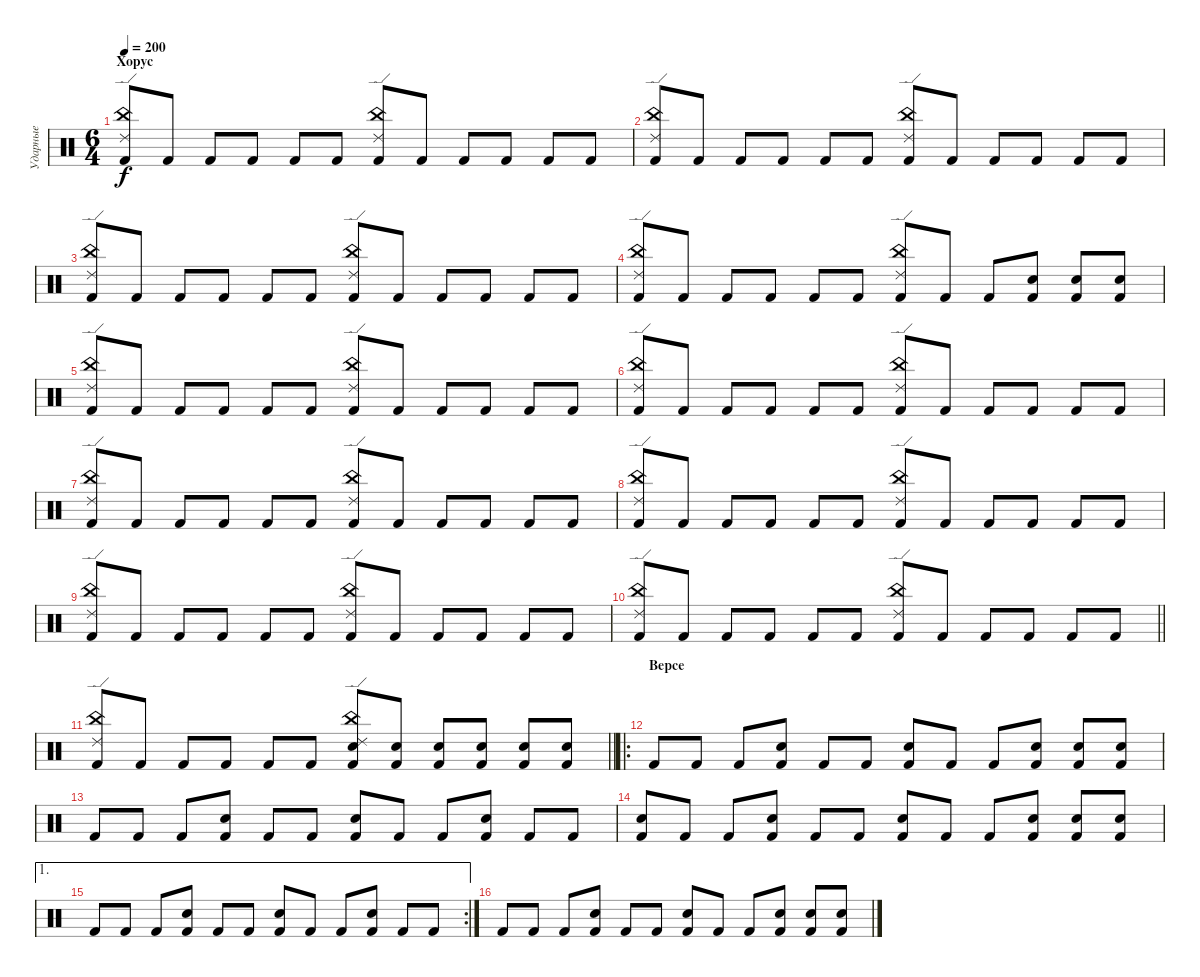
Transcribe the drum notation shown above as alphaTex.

\track ("Ударные" "Ударные") {instrument percussion}
\staff {score}
\articulation defaults
\ts (6 4)
\section ("" "Хорус")
\tempo 200
\clef neutral
\ks c
("Ride (edge) 2" "China (hit)" "Kick (hit) 2").8{dy f} "Kick (hit) 2".8 "Kick (hit) 2".8 "Kick (hit) 2".8 "Kick (hit) 2".8 "Kick (hit) 2".8 ("Ride (edge) 2" "China (hit)" "Kick (hit) 2").8 "Kick (hit) 2".8 "Kick (hit) 2".8 "Kick (hit) 2".8 "Kick (hit) 2".8 "Kick (hit) 2".8 |
("Ride (edge) 2" "China (hit)" "Kick (hit) 2").8 "Kick (hit) 2".8 "Kick (hit) 2".8 "Kick (hit) 2".8 "Kick (hit) 2".8 "Kick (hit) 2".8 ("Ride (edge) 2" "China (hit)" "Kick (hit) 2").8 "Kick (hit) 2".8 "Kick (hit) 2".8 "Kick (hit) 2".8 "Kick (hit) 2".8 "Kick (hit) 2".8 |
("Ride (edge) 2" "China (hit)" "Kick (hit) 2").8 "Kick (hit) 2".8 "Kick (hit) 2".8 "Kick (hit) 2".8 "Kick (hit) 2".8 "Kick (hit) 2".8 ("Ride (edge) 2" "China (hit)" "Kick (hit) 2").8 "Kick (hit) 2".8 "Kick (hit) 2".8 "Kick (hit) 2".8 "Kick (hit) 2".8 "Kick (hit) 2".8 |
("Ride (edge) 2" "China (hit)" "Kick (hit) 2").8 "Kick (hit) 2".8 "Kick (hit) 2".8 "Kick (hit) 2".8 "Kick (hit) 2".8 "Kick (hit) 2".8 ("Ride (edge) 2" "China (hit)" "Kick (hit) 2").8 "Kick (hit) 2".8 "Kick (hit) 2".8 ("Electric Snare (hit)" "Kick (hit) 2").8 ("Electric Snare (hit)" "Kick (hit) 2").8 ("Electric Snare (hit)" "Kick (hit) 2").8 |
("Ride (edge) 2" "China (hit)" "Kick (hit) 2").8 "Kick (hit) 2".8 "Kick (hit) 2".8 "Kick (hit) 2".8 "Kick (hit) 2".8 "Kick (hit) 2".8 ("Ride (edge) 2" "China (hit)" "Kick (hit) 2").8 "Kick (hit) 2".8 "Kick (hit) 2".8 "Kick (hit) 2".8 "Kick (hit) 2".8 "Kick (hit) 2".8 |
("Ride (edge) 2" "China (hit)" "Kick (hit) 2").8 "Kick (hit) 2".8 "Kick (hit) 2".8 "Kick (hit) 2".8 "Kick (hit) 2".8 "Kick (hit) 2".8 ("Ride (edge) 2" "China (hit)" "Kick (hit) 2").8 "Kick (hit) 2".8 "Kick (hit) 2".8 "Kick (hit) 2".8 "Kick (hit) 2".8 "Kick (hit) 2".8 |
("Ride (edge) 2" "China (hit)" "Kick (hit) 2").8 "Kick (hit) 2".8 "Kick (hit) 2".8 "Kick (hit) 2".8 "Kick (hit) 2".8 "Kick (hit) 2".8 ("Ride (edge) 2" "China (hit)" "Kick (hit) 2").8 "Kick (hit) 2".8 "Kick (hit) 2".8 "Kick (hit) 2".8 "Kick (hit) 2".8 "Kick (hit) 2".8 |
("Ride (edge) 2" "China (hit)" "Kick (hit) 2").8 "Kick (hit) 2".8 "Kick (hit) 2".8 "Kick (hit) 2".8 "Kick (hit) 2".8 "Kick (hit) 2".8 ("Ride (edge) 2" "China (hit)" "Kick (hit) 2").8 "Kick (hit) 2".8 "Kick (hit) 2".8 "Kick (hit) 2".8 "Kick (hit) 2".8 "Kick (hit) 2".8 |
("Ride (edge) 2" "China (hit)" "Kick (hit) 2").8 "Kick (hit) 2".8 "Kick (hit) 2".8 "Kick (hit) 2".8 "Kick (hit) 2".8 "Kick (hit) 2".8 ("Ride (edge) 2" "China (hit)" "Kick (hit) 2").8 "Kick (hit) 2".8 "Kick (hit) 2".8 "Kick (hit) 2".8 "Kick (hit) 2".8 "Kick (hit) 2".8 |
\barLineRight lightlight
("Ride (edge) 2" "China (hit)" "Kick (hit) 2").8 "Kick (hit) 2".8 "Kick (hit) 2".8 "Kick (hit) 2".8 "Kick (hit) 2".8 "Kick (hit) 2".8 ("Ride (edge) 2" "China (hit)" "Kick (hit) 2").8 "Kick (hit) 2".8 "Kick (hit) 2".8 "Kick (hit) 2".8 "Kick (hit) 2".8 "Kick (hit) 2".8 |
\barLineRight lightlight
("Ride (edge) 2" "China (hit)" "Kick (hit) 2").8 "Kick (hit) 2".8 "Kick (hit) 2".8 "Kick (hit) 2".8 "Kick (hit) 2".8 "Kick (hit) 2".8 ("Ride (edge) 2" "China (hit)" "Electric Snare (hit)" "Kick (hit) 2").8 ("Electric Snare (hit)" "Kick (hit) 2").8 ("Electric Snare (hit)" "Kick (hit) 2").8 ("Electric Snare (hit)" "Kick (hit) 2").8 ("Electric Snare (hit)" "Kick (hit) 2").8 ("Electric Snare (hit)" "Kick (hit) 2").8 |
\ro
\section ("" "Версе")
"Kick (hit) 2".8 "Kick (hit) 2".8 "Kick (hit) 2".8 ("Electric Snare (hit)" "Kick (hit) 2").8 "Kick (hit) 2".8 "Kick (hit) 2".8 ("Electric Snare (hit)" "Kick (hit) 2").8 "Kick (hit) 2".8 "Kick (hit) 2".8 ("Electric Snare (hit)" "Kick (hit) 2").8 ("Electric Snare (hit)" "Kick (hit) 2").8 ("Electric Snare (hit)" "Kick (hit) 2").8 |
"Kick (hit) 2".8 "Kick (hit) 2".8 "Kick (hit) 2".8 ("Electric Snare (hit)" "Kick (hit) 2").8 "Kick (hit) 2".8 "Kick (hit) 2".8 ("Electric Snare (hit)" "Kick (hit) 2").8 "Kick (hit) 2".8 "Kick (hit) 2".8 ("Electric Snare (hit)" "Kick (hit) 2").8 "Kick (hit) 2".8 "Kick (hit) 2".8 |
("Electric Snare (hit)" "Kick (hit) 2").8 "Kick (hit) 2".8 "Kick (hit) 2".8 ("Electric Snare (hit)" "Kick (hit) 2").8 "Kick (hit) 2".8 "Kick (hit) 2".8 ("Electric Snare (hit)" "Kick (hit) 2").8 "Kick (hit) 2".8 "Kick (hit) 2".8 ("Electric Snare (hit)" "Kick (hit) 2").8 ("Electric Snare (hit)" "Kick (hit) 2").8 ("Electric Snare (hit)" "Kick (hit) 2").8 |
\ae 1
\rc 2 "Kick (hit) 2".8 "Kick (hit) 2".8 "Kick (hit) 2".8
("Electric Snare (hit)" "Kick (hit) 2").8 "Kick (hit) 2".8 "Kick (hit) 2".8 ("Electric Snare (hit)" "Kick (hit) 2").8 "Kick (hit) 2".8 "Kick (hit) 2".8 ("Electric Snare (hit)" "Kick (hit) 2").8 "Kick (hit) 2".8 "Kick (hit) 2".8 |
"Kick (hit) 2".8 "Kick (hit) 2".8 "Kick (hit) 2".8 ("Electric Snare (hit)" "Kick (hit) 2").8 "Kick (hit) 2".8 "Kick (hit) 2".8 ("Electric Snare (hit)" "Kick (hit) 2").8 "Kick (hit) 2".8 "Kick (hit) 2".8 ("Electric Snare (hit)" "Kick (hit) 2").8 ("Electric Snare (hit)" "Kick (hit) 2").8 ("Electric Snare (hit)" "Kick (hit) 2").8
